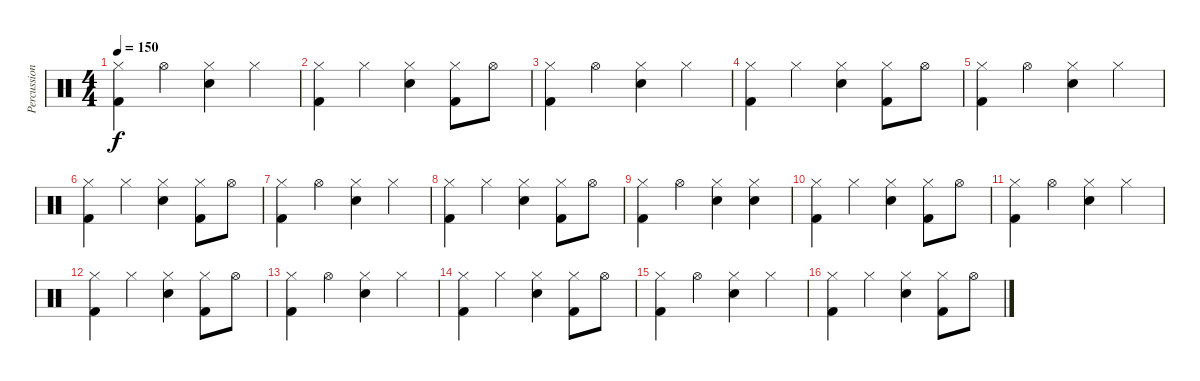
\track ("Percussion" "Percussion") {instrument percussion}
\staff {score}
\articulation defaults
\ts (4 4)
\tempo 150
\clef neutral
\ks c
("Hi-Hat (closed)" "Kick (hit) 2").4{dy f} "Hi-Hat (open)".4 ("Hi-Hat (closed)" "Snare (hit) 2").4 "Hi-Hat (closed)".4 |
("Hi-Hat (closed)" "Kick (hit) 2").4 "Hi-Hat (closed)".4 ("Hi-Hat (closed)" "Snare (hit) 2").4 ("Hi-Hat (closed)" "Kick (hit) 2").8 "Hi-Hat (open)".8 |
("Hi-Hat (closed)" "Kick (hit) 2").4 "Hi-Hat (open)".4 ("Hi-Hat (closed)" "Snare (hit) 2").4 "Hi-Hat (closed)".4 |
("Hi-Hat (closed)" "Kick (hit) 2").4 "Hi-Hat (closed)".4 ("Hi-Hat (closed)" "Snare (hit) 2").4 ("Hi-Hat (closed)" "Kick (hit) 2").8 "Hi-Hat (open)".8 |
("Hi-Hat (closed)" "Kick (hit) 2").4 "Hi-Hat (open)".4 ("Hi-Hat (closed)" "Snare (hit) 2").4 "Hi-Hat (closed)".4 |
("Hi-Hat (closed)" "Kick (hit) 2").4 "Hi-Hat (closed)".4 ("Hi-Hat (closed)" "Snare (hit) 2").4 ("Hi-Hat (closed)" "Kick (hit) 2").8 "Hi-Hat (open)".8 |
("Hi-Hat (closed)" "Kick (hit) 2").4 "Hi-Hat (open)".4 ("Hi-Hat (closed)" "Snare (hit) 2").4 "Hi-Hat (closed)".4 |
("Hi-Hat (closed)" "Kick (hit) 2").4 "Hi-Hat (closed)".4 ("Hi-Hat (closed)" "Snare (hit) 2").4 ("Hi-Hat (closed)" "Kick (hit) 2").8 "Hi-Hat (open)".8 |
("Hi-Hat (closed)" "Kick (hit) 2").4 "Hi-Hat (open)".4 ("Hi-Hat (closed)" "Snare (hit) 2").4 ("Hi-Hat (closed)" "Snare (hit) 2").4 |
("Hi-Hat (closed)" "Kick (hit) 2").4 "Hi-Hat (closed)".4 ("Hi-Hat (closed)" "Snare (hit) 2").4 ("Hi-Hat (closed)" "Kick (hit) 2").8 "Hi-Hat (open)".8 |
("Hi-Hat (closed)" "Kick (hit) 2").4 "Hi-Hat (open)".4 ("Hi-Hat (closed)" "Snare (hit) 2").4 "Hi-Hat (closed)".4 |
("Hi-Hat (closed)" "Kick (hit) 2").4 "Hi-Hat (closed)".4 ("Hi-Hat (closed)" "Snare (hit) 2").4 ("Hi-Hat (closed)" "Kick (hit) 2").8 "Hi-Hat (open)".8 |
("Hi-Hat (closed)" "Kick (hit) 2").4 "Hi-Hat (open)".4 ("Hi-Hat (closed)" "Snare (hit) 2").4 "Hi-Hat (closed)".4 |
("Hi-Hat (closed)" "Kick (hit) 2").4 "Hi-Hat (closed)".4 ("Hi-Hat (closed)" "Snare (hit) 2").4 ("Hi-Hat (closed)" "Kick (hit) 2").8 "Hi-Hat (open)".8 |
("Hi-Hat (closed)" "Kick (hit) 2").4 "Hi-Hat (open)".4 ("Hi-Hat (closed)" "Snare (hit) 2").4 "Hi-Hat (closed)".4 |
("Hi-Hat (closed)" "Kick (hit) 2").4 "Hi-Hat (closed)".4 ("Hi-Hat (closed)" "Snare (hit) 2").4 ("Hi-Hat (closed)" "Kick (hit) 2").8 "Hi-Hat (open)".8
